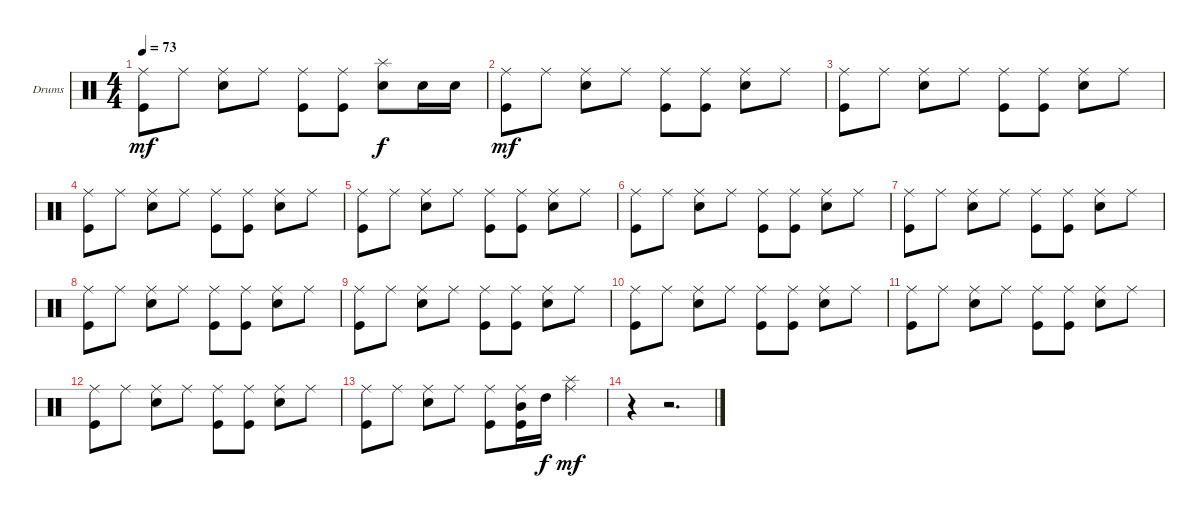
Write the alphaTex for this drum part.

\bracketExtendMode groupsimilarinstruments
\firstSystemTrackNameOrientation horizontal
\otherSystemsTrackNameOrientation horizontal
\track ("Drumkit" "Drums") {solo instrument percussion}
\staff {score}
\articulation defaults
\ts (4 4)
\tempo 73
\clef neutral
\ks c
("Ride (middle)" "Kick (hit)").8{dy mf} "Ride (middle)".8 ("Ride (middle)" "Snare (hit) 2").8 "Ride (middle)".8 ("Ride (middle)" "Kick (hit)").8 ("Ride (middle)" "Kick (hit)").8 ("Splash (hit)" "Snare (hit) 2").8{dy f} "Snare (hit) 2".16 "Snare (hit) 2".16 |
("Ride (middle)" "Kick (hit)").8{dy mf} "Ride (middle)".8 ("Ride (middle)" "Snare (hit) 2").8 "Ride (middle)".8 ("Ride (middle)" "Kick (hit)").8 ("Ride (middle)" "Kick (hit)").8 ("Ride (middle)" "Snare (hit) 2").8 "Ride (middle)".8 |
("Ride (middle)" "Kick (hit)").8 "Ride (middle)".8 ("Ride (middle)" "Snare (hit) 2").8 "Ride (middle)".8 ("Ride (middle)" "Kick (hit)").8 ("Ride (middle)" "Kick (hit)").8 ("Ride (middle)" "Snare (hit) 2").8 "Ride (middle)".8 |
("Ride (middle)" "Kick (hit)").8 "Ride (middle)".8 ("Ride (middle)" "Snare (hit) 2").8 "Ride (middle)".8 ("Ride (middle)" "Kick (hit)").8 ("Ride (middle)" "Kick (hit)").8 ("Ride (middle)" "Snare (hit) 2").8 "Ride (middle)".8 |
("Ride (middle)" "Kick (hit)").8 "Ride (middle)".8 ("Ride (middle)" "Snare (hit) 2").8 "Ride (middle)".8 ("Ride (middle)" "Kick (hit)").8 ("Ride (middle)" "Kick (hit)").8 ("Ride (middle)" "Snare (hit) 2").8 "Ride (middle)".8 |
("Ride (middle)" "Kick (hit)").8 "Ride (middle)".8 ("Ride (middle)" "Snare (hit) 2").8 "Ride (middle)".8 ("Ride (middle)" "Kick (hit)").8 ("Ride (middle)" "Kick (hit)").8 ("Ride (middle)" "Snare (hit) 2").8 "Ride (middle)".8 |
("Ride (middle)" "Kick (hit)").8 "Ride (middle)".8 ("Ride (middle)" "Snare (hit) 2").8 "Ride (middle)".8 ("Ride (middle)" "Kick (hit)").8 ("Ride (middle)" "Kick (hit)").8 ("Ride (middle)" "Snare (hit) 2").8 "Ride (middle)".8 |
("Ride (middle)" "Kick (hit)").8 "Ride (middle)".8 ("Ride (middle)" "Snare (hit) 2").8 "Ride (middle)".8 ("Ride (middle)" "Kick (hit)").8 ("Ride (middle)" "Kick (hit)").8 ("Ride (middle)" "Snare (hit) 2").8 "Ride (middle)".8 |
("Ride (middle)" "Kick (hit)").8 "Ride (middle)".8 ("Ride (middle)" "Snare (hit) 2").8 "Ride (middle)".8 ("Ride (middle)" "Kick (hit)").8 ("Ride (middle)" "Kick (hit)").8 ("Ride (middle)" "Snare (hit) 2").8 "Ride (middle)".8 |
("Ride (middle)" "Kick (hit)").8 "Ride (middle)".8 ("Ride (middle)" "Snare (hit) 2").8 "Ride (middle)".8 ("Ride (middle)" "Kick (hit)").8 ("Ride (middle)" "Kick (hit)").8 ("Ride (middle)" "Snare (hit) 2").8 "Ride (middle)".8 |
("Ride (middle)" "Kick (hit)").8 "Ride (middle)".8 ("Ride (middle)" "Snare (hit) 2").8 "Ride (middle)".8 ("Ride (middle)" "Kick (hit)").8 ("Ride (middle)" "Kick (hit)").8 ("Ride (middle)" "Snare (hit) 2").8 "Ride (middle)".8 |
("Ride (middle)" "Kick (hit)").8 "Ride (middle)".8 ("Ride (middle)" "Snare (hit) 2").8 "Ride (middle)".8 ("Ride (middle)" "Kick (hit)").8 ("Ride (middle)" "Kick (hit)").8 ("Ride (middle)" "Snare (hit) 2").8 "Ride (middle)".8 |
("Ride (middle)" "Kick (hit)").8 "Ride (middle)".8 ("Ride (middle)" "Snare (hit) 2").8 "Ride (middle)".8 ("Ride (middle)" "Kick (hit)").8 ("Ride (middle)" "Mid Tom (hit)" "Kick (hit)").16 "High Tom (hit)".16{dy f} ("Ride (middle)" "Splash (hit)").4{dy mf} |
r.4 r.2{d}
